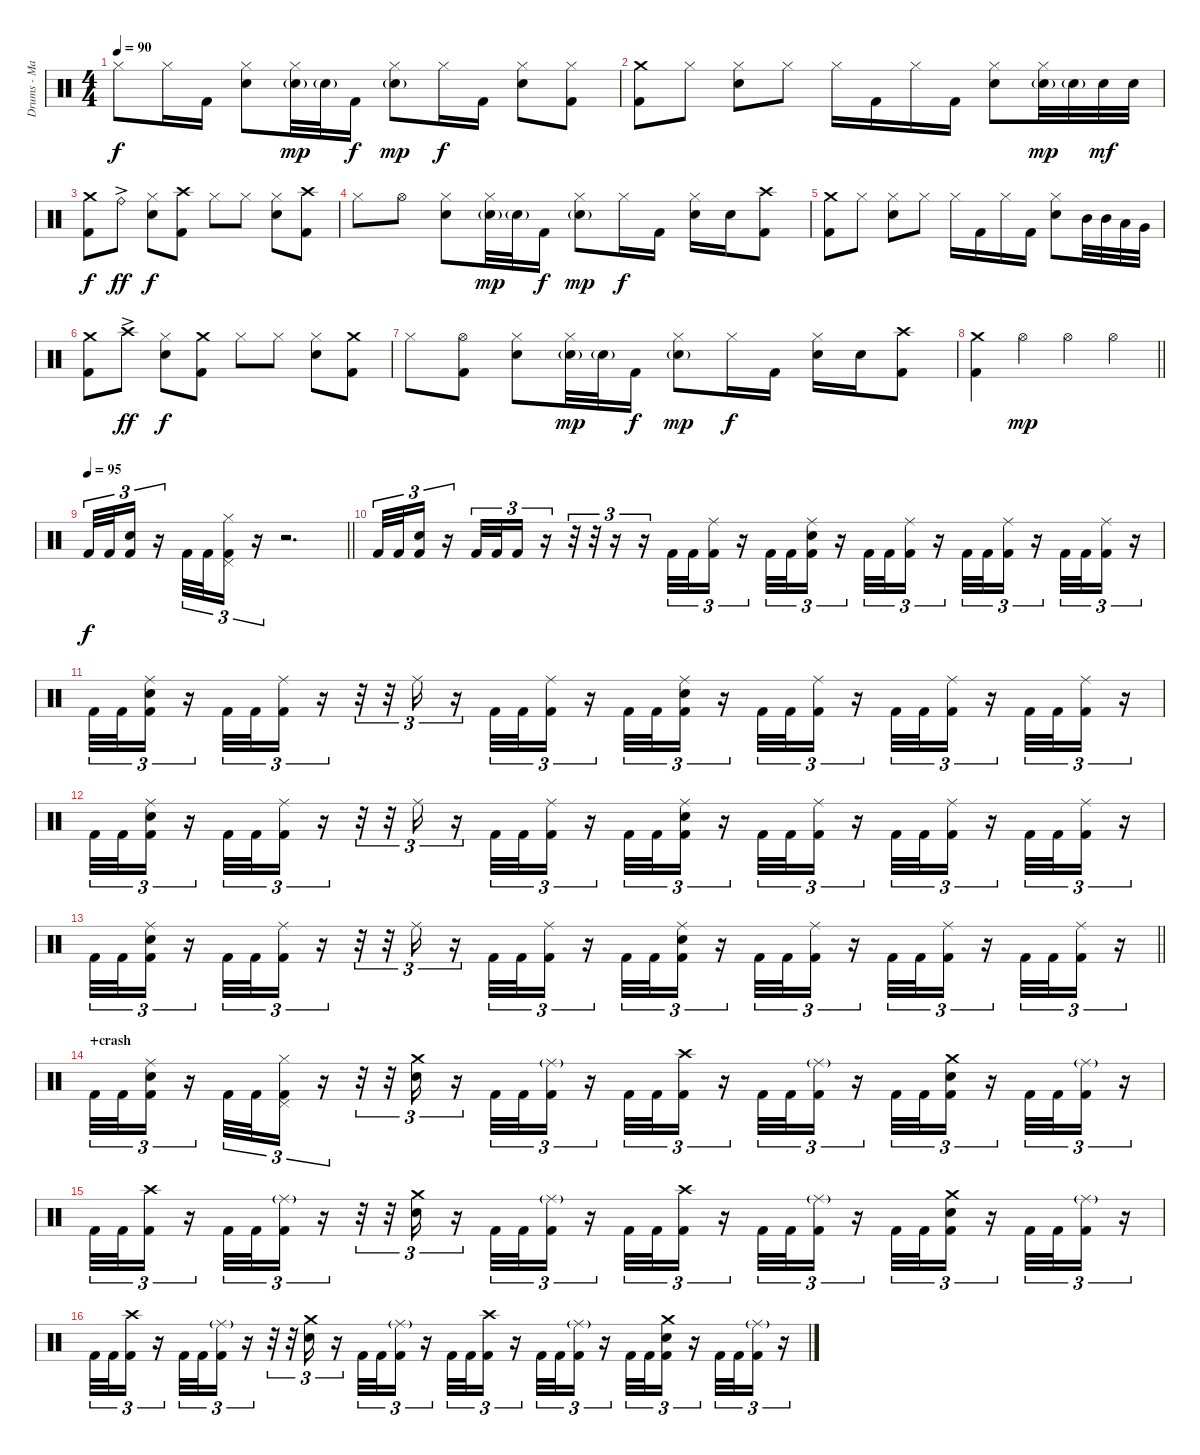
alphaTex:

\track ("Drums - Mario Duplantier" "Drums - Ma") {instrument percussion}
\staff {score}
\articulation defaults
\ts (4 4)
\tempo 90
\clef neutral
\ks c "Hi-Hat (closed)".8{dy f} "Hi-Hat (closed)".16 "Kick (hit) 2".16
("Hi-Hat (closed)" "Electric Snare (hit)").8 ("Hi-Hat (closed)" "Electric Snare (hit)"{g}).32{dy mp} "Electric Snare (hit)"{g}.32 "Kick (hit) 2".16{dy f} ("Hi-Hat (closed)" "Electric Snare (hit)"{g}).8{dy mp} "Hi-Hat (closed)".16{dy f} "Kick (hit) 2".16 ("Hi-Hat (closed)" "Electric Snare (hit)").8 ("Hi-Hat (closed)" "Kick (hit) 2").8 |
("Crash medium (hit)" "Kick (hit) 2").8 "Hi-Hat (closed)".8 ("Hi-Hat (closed)" "Electric Snare (hit)").8 "Hi-Hat (closed)".8 "Hi-Hat (closed)".16 "Kick (hit) 2".16 "Hi-Hat (closed)".16 "Kick (hit) 2".16 ("Hi-Hat (closed)" "Electric Snare (hit)").8 ("Hi-Hat (closed)" "Electric Snare (hit)"{g}).32{dy mp} "Electric Snare (hit)"{g}.32 "Electric Snare (hit)".32{dy mf} "Electric Snare (hit)".32 |
("Crash medium (hit)" "Kick (hit) 2").8{dy f} "Ride (bell)"{ac}.8{dy ff} ("Hi-Hat (closed)" "Electric Snare (hit)").8{dy f} ("Crash high (hit)" "Kick (hit) 2").8 "Hi-Hat (closed)".8 "Hi-Hat (closed)".8 ("Hi-Hat (closed)" "Electric Snare (hit)").8 ("Crash high (hit)" "Kick (hit) 2").8 |
"Hi-Hat (closed)".8 "Hi-Hat (open)".8 ("Hi-Hat (closed)" "Electric Snare (hit)").8 ("Hi-Hat (closed)" "Electric Snare (hit)"{g}).32{dy mp} "Electric Snare (hit)"{g}.32 "Kick (hit) 2".16{dy f} ("Hi-Hat (closed)" "Electric Snare (hit)"{g}).8{dy mp} "Hi-Hat (closed)".16{dy f} "Kick (hit) 2".16 ("Hi-Hat (closed)" "Electric Snare (hit)").16 "Electric Snare (hit)".16 ("Crash high (hit)" "Kick (hit) 2").8 |
("Crash medium (hit)" "Kick (hit) 2").8 "Hi-Hat (closed)".8 ("Hi-Hat (closed)" "Electric Snare (hit)").8 "Hi-Hat (closed)".8 "Hi-Hat (closed)".16 "Kick (hit) 2".16 "Hi-Hat (closed)".16 "Kick (hit) 2".16 ("Hi-Hat (closed)" "Electric Snare (hit)").8 "Mid Tom (hit)".32 "Mid Tom (hit)".32 "Low Tom (hit)".32 "Very Low Tom (hit)".32 |
("Crash medium (hit)" "Kick (hit) 2").8 "Crash high (hit)"{ac}.8{dy ff} ("Hi-Hat (closed)" "Electric Snare (hit)").8{dy f} ("Crash medium (hit)" "Kick (hit) 2").8 "Hi-Hat (closed)".8 "Hi-Hat (closed)".8 ("Hi-Hat (closed)" "Electric Snare (hit)").8 ("Crash medium (hit)" "Kick (hit) 2").8 |
"Hi-Hat (closed)".8 ("Hi-Hat (open)" "Kick (hit) 2").8 ("Hi-Hat (closed)" "Electric Snare (hit)").8 ("Hi-Hat (closed)" "Electric Snare (hit)"{g}).32{dy mp} "Electric Snare (hit)"{g}.32 "Kick (hit) 2".16{dy f} ("Hi-Hat (closed)" "Electric Snare (hit)"{g}).8{dy mp} "Hi-Hat (closed)".16{dy f} "Kick (hit) 2".16 ("Hi-Hat (closed)" "Electric Snare (hit)").16 "Electric Snare (hit)".16 ("Crash high (hit)" "Kick (hit) 2").8 |
\barLineRight lightlight
("Crash medium (hit)" "Kick (hit) 2").4 "Hi-Hat (open)".4{dy mp} "Hi-Hat (open)".4 "Hi-Hat (open)".4 |
\section ("" "")
\tempo 95
\barLineRight lightlight "Kick (hit) 2".32{tu (3 2) dy f} "Kick (hit) 2".32{tu (3 2)}
("Electric Snare (hit)" "Kick (hit) 2").16{tu (3 2)} r.16{tu (3 2)} "Kick (hit) 2".32{tu (3 2)} "Kick (hit) 2".32{tu (3 2)} ("Pedal Hi-Hat (hit)" "Hi-Hat (closed)" "Kick (hit) 2").16{tu (3 2)} r.16{tu (3 2)} r.2{d} |
\section ("" "")
"Kick (hit) 2".32{tu (3 2)} "Kick (hit) 2".32{tu (3 2)} ("Electric Snare (hit)" "Kick (hit) 2").16{tu (3 2)} r.16{tu (3 2)} "Kick (hit) 2".32{tu (3 2)} "Kick (hit) 2".32{tu (3 2)} "Kick (hit) 2".16{tu (3 2)} r.16{tu (3 2)} r.32{tu (3 2)} r.32{tu (3 2)} r.16{tu (3 2)} r.16{tu (3 2)} "Kick (hit) 2".32{tu (3 2)} "Kick (hit) 2".32{tu (3 2)} ("Ride (middle)" "Kick (hit) 2").16{tu (3 2)} r.16{tu (3 2)} "Kick (hit) 2".32{tu (3 2)} "Kick (hit) 2".32{tu (3 2)} ("Ride (middle)" "Electric Snare (hit)" "Kick (hit) 2").16{tu (3 2)} r.16{tu (3 2)} "Kick (hit) 2".32{tu (3 2)} "Kick (hit) 2".32{tu (3 2)} ("Ride (middle)" "Kick (hit) 2").16{tu (3 2)} r.16{tu (3 2)} "Kick (hit) 2".32{tu (3 2)} "Kick (hit) 2".32{tu (3 2)} ("Ride (middle)" "Kick (hit) 2").16{tu (3 2)} r.16{tu (3 2)} "Kick (hit) 2".32{tu (3 2)} "Kick (hit) 2".32{tu (3 2)} ("Ride (middle)" "Kick (hit) 2").16{tu (3 2)} r.16{tu (3 2)} |
"Kick (hit) 2".32{tu (3 2)} "Kick (hit) 2".32{tu (3 2)} ("Ride (middle)" "Electric Snare (hit)" "Kick (hit) 2").16{tu (3 2)} r.16{tu (3 2)} "Kick (hit) 2".32{tu (3 2)} "Kick (hit) 2".32{tu (3 2)} ("Ride (middle)" "Kick (hit) 2").16{tu (3 2)} r.16{tu (3 2)} r.32{tu (3 2)} r.32{tu (3 2)} "Ride (middle)".16{tu (3 2)} r.16{tu (3 2)} "Kick (hit) 2".32{tu (3 2)} "Kick (hit) 2".32{tu (3 2)} ("Ride (middle)" "Kick (hit) 2").16{tu (3 2)} r.16{tu (3 2)} "Kick (hit) 2".32{tu (3 2)} "Kick (hit) 2".32{tu (3 2)} ("Ride (middle)" "Electric Snare (hit)" "Kick (hit) 2").16{tu (3 2)} r.16{tu (3 2)} "Kick (hit) 2".32{tu (3 2)} "Kick (hit) 2".32{tu (3 2)} ("Ride (middle)" "Kick (hit) 2").16{tu (3 2)} r.16{tu (3 2)} "Kick (hit) 2".32{tu (3 2)} "Kick (hit) 2".32{tu (3 2)} ("Ride (middle)" "Kick (hit) 2").16{tu (3 2)} r.16{tu (3 2)} "Kick (hit) 2".32{tu (3 2)} "Kick (hit) 2".32{tu (3 2)} ("Ride (middle)" "Kick (hit) 2").16{tu (3 2)} r.16{tu (3 2)} |
"Kick (hit) 2".32{tu (3 2)} "Kick (hit) 2".32{tu (3 2)} ("Ride (middle)" "Electric Snare (hit)" "Kick (hit) 2").16{tu (3 2)} r.16{tu (3 2)} "Kick (hit) 2".32{tu (3 2)} "Kick (hit) 2".32{tu (3 2)} ("Ride (middle)" "Kick (hit) 2").16{tu (3 2)} r.16{tu (3 2)} r.32{tu (3 2)} r.32{tu (3 2)} "Ride (middle)".16{tu (3 2)} r.16{tu (3 2)} "Kick (hit) 2".32{tu (3 2)} "Kick (hit) 2".32{tu (3 2)} ("Ride (middle)" "Kick (hit) 2").16{tu (3 2)} r.16{tu (3 2)} "Kick (hit) 2".32{tu (3 2)} "Kick (hit) 2".32{tu (3 2)} ("Ride (middle)" "Electric Snare (hit)" "Kick (hit) 2").16{tu (3 2)} r.16{tu (3 2)} "Kick (hit) 2".32{tu (3 2)} "Kick (hit) 2".32{tu (3 2)} ("Ride (middle)" "Kick (hit) 2").16{tu (3 2)} r.16{tu (3 2)} "Kick (hit) 2".32{tu (3 2)} "Kick (hit) 2".32{tu (3 2)} ("Ride (middle)" "Kick (hit) 2").16{tu (3 2)} r.16{tu (3 2)} "Kick (hit) 2".32{tu (3 2)} "Kick (hit) 2".32{tu (3 2)} ("Ride (middle)" "Kick (hit) 2").16{tu (3 2)} r.16{tu (3 2)} |
\barLineRight lightlight "Kick (hit) 2".32{tu (3 2)} "Kick (hit) 2".32{tu (3 2)}
("Ride (middle)" "Electric Snare (hit)" "Kick (hit) 2").16{tu (3 2)} r.16{tu (3 2)} "Kick (hit) 2".32{tu (3 2)} "Kick (hit) 2".32{tu (3 2)} ("Ride (middle)" "Kick (hit) 2").16{tu (3 2)} r.16{tu (3 2)} r.32{tu (3 2)} r.32{tu (3 2)} "Ride (middle)".16{tu (3 2)} r.16{tu (3 2)} "Kick (hit) 2".32{tu (3 2)} "Kick (hit) 2".32{tu (3 2)} ("Ride (middle)" "Kick (hit) 2").16{tu (3 2)} r.16{tu (3 2)} "Kick (hit) 2".32{tu (3 2)} "Kick (hit) 2".32{tu (3 2)} ("Ride (middle)" "Electric Snare (hit)" "Kick (hit) 2").16{tu (3 2)} r.16{tu (3 2)} "Kick (hit) 2".32{tu (3 2)} "Kick (hit) 2".32{tu (3 2)} ("Ride (middle)" "Kick (hit) 2").16{tu (3 2)} r.16{tu (3 2)} "Kick (hit) 2".32{tu (3 2)} "Kick (hit) 2".32{tu (3 2)} ("Ride (middle)" "Kick (hit) 2").16{tu (3 2)} r.16{tu (3 2)} "Kick (hit) 2".32{tu (3 2)} "Kick (hit) 2".32{tu (3 2)} ("Ride (middle)" "Kick (hit) 2").16{tu (3 2)} r.16{tu (3 2)} |
\section ("" "+crash")
"Kick (hit) 2".32{tu (3 2)} "Kick (hit) 2".32{tu (3 2)} ("Ride (middle)" "Electric Snare (hit)" "Kick (hit) 2").16{tu (3 2)} r.16{tu (3 2)} "Kick (hit) 2".32{tu (3 2)} "Kick (hit) 2".32{tu (3 2)} ("Pedal Hi-Hat (hit)" "Hi-Hat (closed)" "Kick (hit) 2").16{tu (3 2)} r.16{tu (3 2)} r.32{tu (3 2)} r.32{tu (3 2)} ("Crash medium (hit)" "Electric Snare (hit)").16{tu (3 2)} r.16{tu (3 2)} "Kick (hit) 2".32{tu (3 2)} "Kick (hit) 2".32{tu (3 2)} ("Ride (middle)"{g} "Kick (hit) 2").16{tu (3 2)} r.16{tu (3 2)} "Kick (hit) 2".32{tu (3 2)} "Kick (hit) 2".32{tu (3 2)} ("Crash high (hit)" "Kick (hit) 2").16{tu (3 2)} r.16{tu (3 2)} "Kick (hit) 2".32{tu (3 2)} "Kick (hit) 2".32{tu (3 2)} ("Ride (middle)"{g} "Kick (hit) 2").16{tu (3 2)} r.16{tu (3 2)} "Kick (hit) 2".32{tu (3 2)} "Kick (hit) 2".32{tu (3 2)} ("Crash medium (hit)" "Electric Snare (hit)" "Kick (hit) 2").16{tu (3 2)} r.16{tu (3 2)} "Kick (hit) 2".32{tu (3 2)} "Kick (hit) 2".32{tu (3 2)} ("Ride (middle)"{g} "Kick (hit) 2").16{tu (3 2)} r.16{tu (3 2)} |
"Kick (hit) 2".32{tu (3 2)} "Kick (hit) 2".32{tu (3 2)} ("Crash high (hit)" "Kick (hit) 2").16{tu (3 2)} r.16{tu (3 2)} "Kick (hit) 2".32{tu (3 2)} "Kick (hit) 2".32{tu (3 2)} ("Ride (middle)"{g} "Kick (hit) 2").16{tu (3 2)} r.16{tu (3 2)} r.32{tu (3 2)} r.32{tu (3 2)} ("Crash medium (hit)" "Electric Snare (hit)").16{tu (3 2)} r.16{tu (3 2)} "Kick (hit) 2".32{tu (3 2)} "Kick (hit) 2".32{tu (3 2)} ("Ride (middle)"{g} "Kick (hit) 2").16{tu (3 2)} r.16{tu (3 2)} "Kick (hit) 2".32{tu (3 2)} "Kick (hit) 2".32{tu (3 2)} ("Crash high (hit)" "Kick (hit) 2").16{tu (3 2)} r.16{tu (3 2)} "Kick (hit) 2".32{tu (3 2)} "Kick (hit) 2".32{tu (3 2)} ("Ride (middle)"{g} "Kick (hit) 2").16{tu (3 2)} r.16{tu (3 2)} "Kick (hit) 2".32{tu (3 2)} "Kick (hit) 2".32{tu (3 2)} ("Crash medium (hit)" "Electric Snare (hit)" "Kick (hit) 2").16{tu (3 2)} r.16{tu (3 2)} "Kick (hit) 2".32{tu (3 2)} "Kick (hit) 2".32{tu (3 2)} ("Ride (middle)"{g} "Kick (hit) 2").16{tu (3 2)} r.16{tu (3 2)} |
"Kick (hit) 2".32{tu (3 2)} "Kick (hit) 2".32{tu (3 2)} ("Crash high (hit)" "Kick (hit) 2").16{tu (3 2)} r.16{tu (3 2)} "Kick (hit) 2".32{tu (3 2)} "Kick (hit) 2".32{tu (3 2)} ("Ride (middle)"{g} "Kick (hit) 2").16{tu (3 2)} r.16{tu (3 2)} r.32{tu (3 2)} r.32{tu (3 2)} ("Crash medium (hit)" "Electric Snare (hit)").16{tu (3 2)} r.16{tu (3 2)} "Kick (hit) 2".32{tu (3 2)} "Kick (hit) 2".32{tu (3 2)} ("Ride (middle)"{g} "Kick (hit) 2").16{tu (3 2)} r.16{tu (3 2)} "Kick (hit) 2".32{tu (3 2)} "Kick (hit) 2".32{tu (3 2)} ("Crash high (hit)" "Kick (hit) 2").16{tu (3 2)} r.16{tu (3 2)} "Kick (hit) 2".32{tu (3 2)} "Kick (hit) 2".32{tu (3 2)} ("Ride (middle)"{g} "Kick (hit) 2").16{tu (3 2)} r.16{tu (3 2)} "Kick (hit) 2".32{tu (3 2)} "Kick (hit) 2".32{tu (3 2)} ("Crash medium (hit)" "Electric Snare (hit)" "Kick (hit) 2").16{tu (3 2)} r.16{tu (3 2)} "Kick (hit) 2".32{tu (3 2)} "Kick (hit) 2".32{tu (3 2)} ("Ride (middle)"{g} "Kick (hit) 2").16{tu (3 2)} r.16{tu (3 2)}
